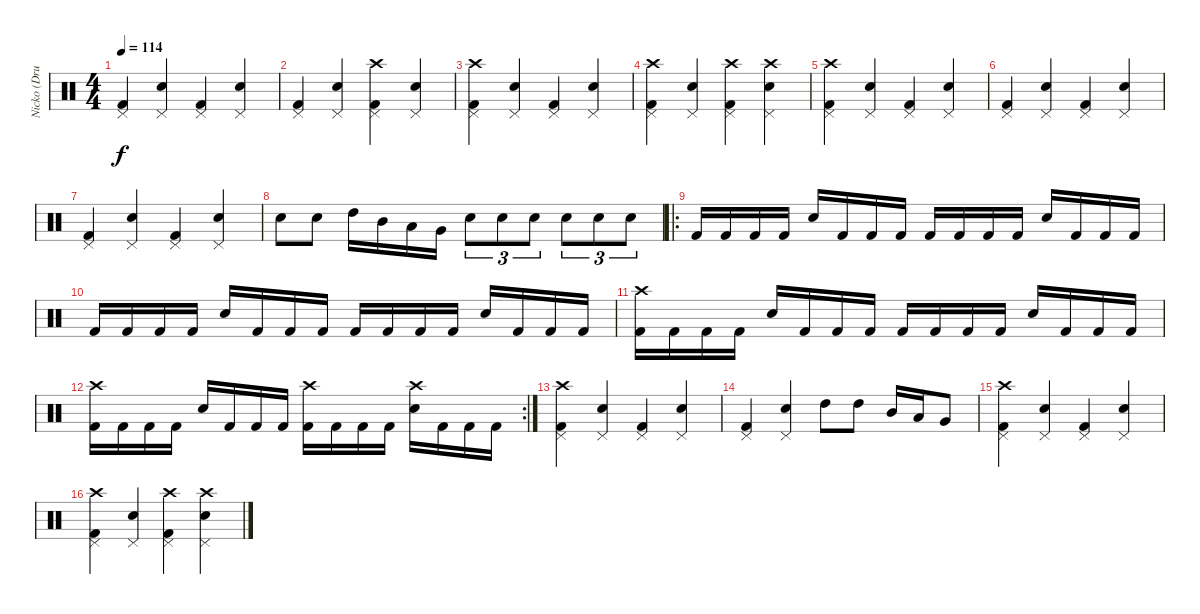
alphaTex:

\track ("Nicko (Drums)" "Nicko (Dru") {instrument percussion}
\staff {score}
\articulation defaults
\ts (4 4)
\tempo 114
\clef neutral
\ks c
("Pedal Hi-Hat (hit)" "Kick (hit) 2").4{dy f} ("Pedal Hi-Hat (hit)" "Snare (hit) 2").4 ("Pedal Hi-Hat (hit)" "Kick (hit) 2").4 ("Pedal Hi-Hat (hit)" "Snare (hit) 2").4 |
("Pedal Hi-Hat (hit)" "Kick (hit) 2").4 ("Pedal Hi-Hat (hit)" "Snare (hit) 2").4 ("Pedal Hi-Hat (hit)" "Kick (hit) 2" "Crash high (hit)").4 ("Pedal Hi-Hat (hit)" "Snare (hit) 2").4 |
("Pedal Hi-Hat (hit)" "Kick (hit) 2" "Crash high (hit)").4 ("Pedal Hi-Hat (hit)" "Snare (hit) 2").4 ("Pedal Hi-Hat (hit)" "Kick (hit) 2").4 ("Pedal Hi-Hat (hit)" "Snare (hit) 2").4 |
("Pedal Hi-Hat (hit)" "Kick (hit) 2" "Crash high (hit)").4 ("Pedal Hi-Hat (hit)" "Snare (hit) 2").4 ("Pedal Hi-Hat (hit)" "Kick (hit) 2" "Crash high (hit)").4 ("Pedal Hi-Hat (hit)" "Snare (hit) 2" "Crash high (hit)").4 |
("Pedal Hi-Hat (hit)" "Kick (hit) 2" "Crash high (hit)").4 ("Pedal Hi-Hat (hit)" "Snare (hit) 2").4 ("Pedal Hi-Hat (hit)" "Kick (hit) 2").4 ("Pedal Hi-Hat (hit)" "Snare (hit) 2").4 |
("Pedal Hi-Hat (hit)" "Kick (hit) 2").4 ("Pedal Hi-Hat (hit)" "Snare (hit) 2").4 ("Pedal Hi-Hat (hit)" "Kick (hit) 2").4 ("Pedal Hi-Hat (hit)" "Snare (hit) 2").4 |
("Pedal Hi-Hat (hit)" "Kick (hit) 2").4 ("Pedal Hi-Hat (hit)" "Snare (hit) 2").4 ("Pedal Hi-Hat (hit)" "Kick (hit) 2").4 ("Pedal Hi-Hat (hit)" "Snare (hit) 2").4 |
"Snare (hit) 2".8 "Snare (hit) 2".8 "High Tom (hit)".16 "Mid Tom (hit)".16 "Low Tom (hit)".16 "Very Low Tom (hit)".16 "Snare (hit) 2".8{tu (3 2)} "Snare (hit) 2".8{tu (3 2)} "Snare (hit) 2".8{tu (3 2)} "Snare (hit) 2".8{tu (3 2)} "Snare (hit) 2".8{tu (3 2)} "Snare (hit) 2".8{tu (3 2)} |
\ro "Kick (hit) 2".16 "Kick (hit) 2".16 "Kick (hit) 2".16 "Kick (hit) 2".16 "Snare (hit) 2".16 "Kick (hit) 2".16 "Kick (hit) 2".16 "Kick (hit) 2".16 "Kick (hit) 2".16 "Kick (hit) 2".16 "Kick (hit) 2".16 "Kick (hit) 2".16 "Snare (hit) 2".16 "Kick (hit) 2".16 "Kick (hit) 2".16 "Kick (hit) 2".16
|
"Kick (hit) 2".16 "Kick (hit) 2".16 "Kick (hit) 2".16 "Kick (hit) 2".16 "Snare (hit) 2".16 "Kick (hit) 2".16 "Kick (hit) 2".16 "Kick (hit) 2".16 "Kick (hit) 2".16 "Kick (hit) 2".16 "Kick (hit) 2".16 "Kick (hit) 2".16 "Snare (hit) 2".16 "Kick (hit) 2".16 "Kick (hit) 2".16 "Kick (hit) 2".16 |
("Kick (hit) 2" "Crash high (hit)").16 "Kick (hit) 2".16 "Kick (hit) 2".16 "Kick (hit) 2".16 "Snare (hit) 2".16 "Kick (hit) 2".16 "Kick (hit) 2".16 "Kick (hit) 2".16 "Kick (hit) 2".16 "Kick (hit) 2".16 "Kick (hit) 2".16 "Kick (hit) 2".16 "Snare (hit) 2".16 "Kick (hit) 2".16 "Kick (hit) 2".16 "Kick (hit) 2".16 |
\rc 2
("Kick (hit) 2" "Crash high (hit)").16 "Kick (hit) 2".16 "Kick (hit) 2".16 "Kick (hit) 2".16 "Snare (hit) 2".16 "Kick (hit) 2".16 "Kick (hit) 2".16 "Kick (hit) 2".16 ("Kick (hit) 2" "Crash high (hit)").16 "Kick (hit) 2".16 "Kick (hit) 2".16 "Kick (hit) 2".16 ("Snare (hit) 2" "Crash high (hit)").16 "Kick (hit) 2".16 "Kick (hit) 2".16 "Kick (hit) 2".16 |
("Pedal Hi-Hat (hit)" "Kick (hit) 2" "Crash high (hit)").4 ("Pedal Hi-Hat (hit)" "Snare (hit) 2").4 ("Pedal Hi-Hat (hit)" "Kick (hit) 2").4 ("Pedal Hi-Hat (hit)" "Snare (hit) 2").4 |
("Pedal Hi-Hat (hit)" "Kick (hit) 2").4 ("Pedal Hi-Hat (hit)" "Snare (hit) 2").4 "High Tom (hit)".8 "High Tom (hit)".8 "Mid Tom (hit)".16 "Low Tom (hit)".16 "Very Low Tom (hit)".8 |
("Pedal Hi-Hat (hit)" "Kick (hit) 2" "Crash high (hit)").4 ("Pedal Hi-Hat (hit)" "Snare (hit) 2").4 ("Pedal Hi-Hat (hit)" "Kick (hit) 2").4 ("Pedal Hi-Hat (hit)" "Snare (hit) 2").4 |
("Pedal Hi-Hat (hit)" "Kick (hit) 2" "Crash high (hit)").4 ("Pedal Hi-Hat (hit)" "Snare (hit) 2").4 ("Pedal Hi-Hat (hit)" "Kick (hit) 2" "Crash high (hit)").4 ("Pedal Hi-Hat (hit)" "Snare (hit) 2" "Crash high (hit)").4
